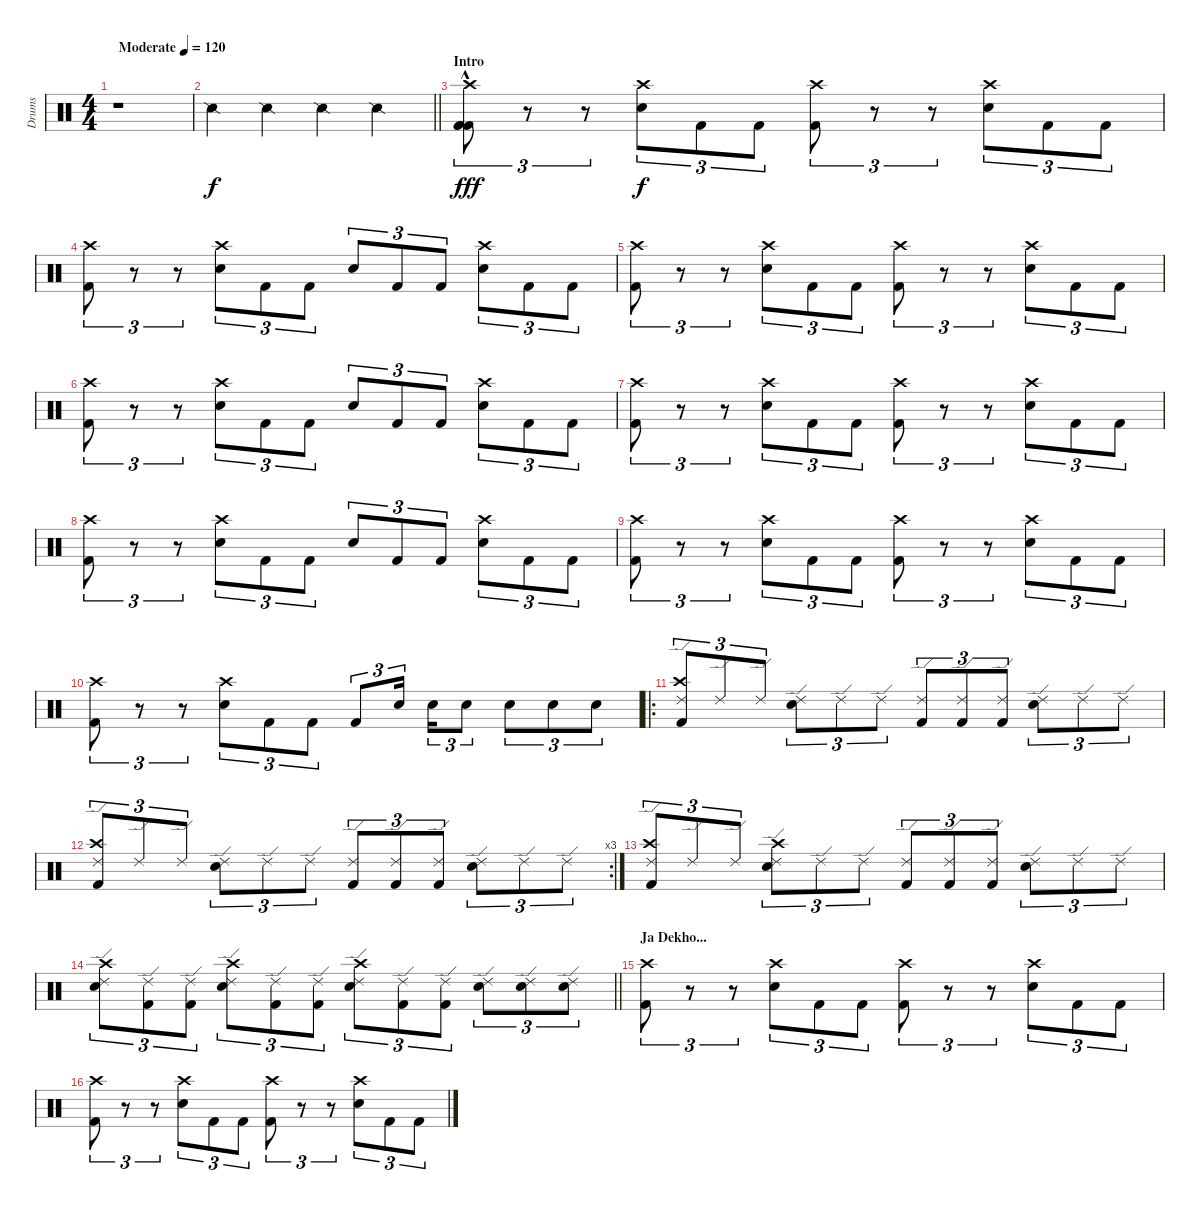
\track ("Drums" "Drums") {instrument percussion}
\staff {score}
\articulation defaults
\ts (4 4)
\tempo (120 "Moderate")
\clef neutral
\ks c
r.1{dy f} |
\barLineRight lightlight "Snare (side stick) 2".4 "Snare (side stick) 2".4 "Snare (side stick) 2".4 "Snare (side stick) 2".4
|
\section ("" "Intro")
("Kick (hit) 2"{hac} "Crash high (hit)"{hac} "Kick (hit) 2"{hac} "Kick (hit) 2"{hac}).8{tu (3 2) dy fff} r.8{tu (3 2)} r.8{tu (3 2)} ("Electric Snare (hit)" "Crash high (hit)").8{tu (3 2) dy f} "Kick (hit) 2".8{tu (3 2)} "Kick (hit) 2".8{tu (3 2)} ("Kick (hit) 2" "Crash high (hit)").8{tu (3 2)} r.8{tu (3 2)} r.8{tu (3 2)} ("Electric Snare (hit)" "Crash high (hit)").8{tu (3 2)} "Kick (hit) 2".8{tu (3 2)} "Kick (hit) 2".8{tu (3 2)} |
("Kick (hit) 2" "Crash high (hit)").8{tu (3 2)} r.8{tu (3 2)} r.8{tu (3 2)} ("Electric Snare (hit)" "Crash high (hit)").8{tu (3 2)} "Kick (hit) 2".8{tu (3 2)} "Kick (hit) 2".8{tu (3 2)} "Electric Snare (hit)".8{tu (3 2)} "Kick (hit) 2".8{tu (3 2)} "Kick (hit) 2".8{tu (3 2)} ("Electric Snare (hit)" "Crash high (hit)").8{tu (3 2)} "Kick (hit) 2".8{tu (3 2)} "Kick (hit) 2".8{tu (3 2)} |
("Kick (hit) 2" "Crash high (hit)").8{tu (3 2)} r.8{tu (3 2)} r.8{tu (3 2)} ("Electric Snare (hit)" "Crash high (hit)").8{tu (3 2)} "Kick (hit) 2".8{tu (3 2)} "Kick (hit) 2".8{tu (3 2)} ("Kick (hit) 2" "Crash high (hit)").8{tu (3 2)} r.8{tu (3 2)} r.8{tu (3 2)} ("Electric Snare (hit)" "Crash high (hit)").8{tu (3 2)} "Kick (hit) 2".8{tu (3 2)} "Kick (hit) 2".8{tu (3 2)} |
("Kick (hit) 2" "Crash high (hit)").8{tu (3 2)} r.8{tu (3 2)} r.8{tu (3 2)} ("Electric Snare (hit)" "Crash high (hit)").8{tu (3 2)} "Kick (hit) 2".8{tu (3 2)} "Kick (hit) 2".8{tu (3 2)} "Electric Snare (hit)".8{tu (3 2)} "Kick (hit) 2".8{tu (3 2)} "Kick (hit) 2".8{tu (3 2)} ("Electric Snare (hit)" "Crash high (hit)").8{tu (3 2)} "Kick (hit) 2".8{tu (3 2)} "Kick (hit) 2".8{tu (3 2)} |
("Kick (hit) 2" "Crash high (hit)").8{tu (3 2)} r.8{tu (3 2)} r.8{tu (3 2)} ("Electric Snare (hit)" "Crash high (hit)").8{tu (3 2)} "Kick (hit) 2".8{tu (3 2)} "Kick (hit) 2".8{tu (3 2)} ("Kick (hit) 2" "Crash high (hit)").8{tu (3 2)} r.8{tu (3 2)} r.8{tu (3 2)} ("Electric Snare (hit)" "Crash high (hit)").8{tu (3 2)} "Kick (hit) 2".8{tu (3 2)} "Kick (hit) 2".8{tu (3 2)} |
("Kick (hit) 2" "Crash high (hit)").8{tu (3 2)} r.8{tu (3 2)} r.8{tu (3 2)} ("Electric Snare (hit)" "Crash high (hit)").8{tu (3 2)} "Kick (hit) 2".8{tu (3 2)} "Kick (hit) 2".8{tu (3 2)} "Electric Snare (hit)".8{tu (3 2)} "Kick (hit) 2".8{tu (3 2)} "Kick (hit) 2".8{tu (3 2)} ("Electric Snare (hit)" "Crash high (hit)").8{tu (3 2)} "Kick (hit) 2".8{tu (3 2)} "Kick (hit) 2".8{tu (3 2)} |
("Kick (hit) 2" "Crash high (hit)").8{tu (3 2)} r.8{tu (3 2)} r.8{tu (3 2)} ("Electric Snare (hit)" "Crash high (hit)").8{tu (3 2)} "Kick (hit) 2".8{tu (3 2)} "Kick (hit) 2".8{tu (3 2)} ("Kick (hit) 2" "Crash high (hit)").8{tu (3 2)} r.8{tu (3 2)} r.8{tu (3 2)} ("Electric Snare (hit)" "Crash high (hit)").8{tu (3 2)} "Kick (hit) 2".8{tu (3 2)} "Kick (hit) 2".8{tu (3 2)} |
("Kick (hit) 2" "Crash high (hit)").8{tu (3 2)} r.8{tu (3 2)} r.8{tu (3 2)} ("Electric Snare (hit)" "Crash high (hit)").8{tu (3 2)} "Kick (hit) 2".8{tu (3 2)} "Kick (hit) 2".8{tu (3 2)} "Kick (hit) 2".8{tu (3 2)} "Electric Snare (hit)".16{tu (3 2) beam splitsecondary} "Electric Snare (hit)".16{tu (3 2)} "Electric Snare (hit)".8{tu (3 2)} "Electric Snare (hit)".8{tu (3 2)} "Electric Snare (hit)".8{tu (3 2)} "Electric Snare (hit)".8{tu (3 2)} |
\ro
("Ride (edge) 2" "Crash high (hit)" "Kick (hit) 2").8{tu (3 2)} "Ride (edge) 2".8{tu (3 2)} "Ride (edge) 2".8{tu (3 2)} ("Ride (edge) 2" "Electric Snare (hit)").8{tu (3 2)} "Ride (edge) 2".8{tu (3 2)} "Ride (edge) 2".8{tu (3 2)} ("Ride (edge) 2" "Kick (hit) 2").8{tu (3 2)} ("Ride (edge) 2" "Kick (hit) 2").8{tu (3 2)} ("Ride (edge) 2" "Kick (hit) 2").8{tu (3 2)} ("Ride (edge) 2" "Electric Snare (hit)").8{tu (3 2)} "Ride (edge) 2".8{tu (3 2)} "Ride (edge) 2".8{tu (3 2)} |
\rc 3
("Ride (edge) 2" "Crash high (hit)" "Kick (hit) 2").8{tu (3 2)} "Ride (edge) 2".8{tu (3 2)} "Ride (edge) 2".8{tu (3 2)} ("Ride (edge) 2" "Electric Snare (hit)").8{tu (3 2)} "Ride (edge) 2".8{tu (3 2)} "Ride (edge) 2".8{tu (3 2)} ("Ride (edge) 2" "Kick (hit) 2").8{tu (3 2)} ("Ride (edge) 2" "Kick (hit) 2").8{tu (3 2)} ("Ride (edge) 2" "Kick (hit) 2").8{tu (3 2)} ("Ride (edge) 2" "Electric Snare (hit)").8{tu (3 2)} "Ride (edge) 2".8{tu (3 2)} "Ride (edge) 2".8{tu (3 2)} |
("Ride (edge) 2" "Crash high (hit)" "Kick (hit) 2").8{tu (3 2)} "Ride (edge) 2".8{tu (3 2)} "Ride (edge) 2".8{tu (3 2)} ("Ride (edge) 2" "Crash high (hit)" "Electric Snare (hit)").8{tu (3 2)} "Ride (edge) 2".8{tu (3 2)} "Ride (edge) 2".8{tu (3 2)} ("Ride (edge) 2" "Kick (hit) 2").8{tu (3 2)} ("Ride (edge) 2" "Kick (hit) 2").8{tu (3 2)} ("Ride (edge) 2" "Kick (hit) 2").8{tu (3 2)} ("Ride (edge) 2" "Electric Snare (hit)").8{tu (3 2)} "Ride (edge) 2".8{tu (3 2)} "Ride (edge) 2".8{tu (3 2)} |
\barLineRight lightlight
("Ride (edge) 2" "Crash high (hit)" "Electric Snare (hit)").8{tu (3 2)} ("Ride (edge) 2" "Kick (hit) 2").8{tu (3 2)} ("Ride (edge) 2" "Kick (hit) 2").8{tu (3 2)} ("Ride (edge) 2" "Crash high (hit)" "Electric Snare (hit)").8{tu (3 2)} ("Ride (edge) 2" "Kick (hit) 2").8{tu (3 2)} ("Ride (edge) 2" "Kick (hit) 2").8{tu (3 2)} ("Ride (edge) 2" "Crash high (hit)" "Electric Snare (hit)").8{tu (3 2)} ("Ride (edge) 2" "Kick (hit) 2").8{tu (3 2)} ("Ride (edge) 2" "Kick (hit) 2").8{tu (3 2)} ("Ride (edge) 2" "Electric Snare (hit)").8{tu (3 2)} ("Ride (edge) 2" "Electric Snare (hit)").8{tu (3 2)} ("Ride (edge) 2" "Electric Snare (hit)").8{tu (3 2)} |
\section ("" "Ja Dekho...")
("Kick (hit) 2" "Crash high (hit)").8{tu (3 2)} r.8{tu (3 2)} r.8{tu (3 2)} ("Electric Snare (hit)" "Crash high (hit)").8{tu (3 2)} "Kick (hit) 2".8{tu (3 2)} "Kick (hit) 2".8{tu (3 2)} ("Kick (hit) 2" "Crash high (hit)").8{tu (3 2)} r.8{tu (3 2)} r.8{tu (3 2)} ("Electric Snare (hit)" "Crash high (hit)").8{tu (3 2)} "Kick (hit) 2".8{tu (3 2)} "Kick (hit) 2".8{tu (3 2)} |
("Kick (hit) 2" "Crash high (hit)").8{tu (3 2)} r.8{tu (3 2)} r.8{tu (3 2)} ("Electric Snare (hit)" "Crash high (hit)").8{tu (3 2)} "Kick (hit) 2".8{tu (3 2)} "Kick (hit) 2".8{tu (3 2)} ("Kick (hit) 2" "Crash high (hit)").8{tu (3 2)} r.8{tu (3 2)} r.8{tu (3 2)} ("Electric Snare (hit)" "Crash high (hit)").8{tu (3 2)} "Kick (hit) 2".8{tu (3 2)} "Kick (hit) 2".8{tu (3 2)}
